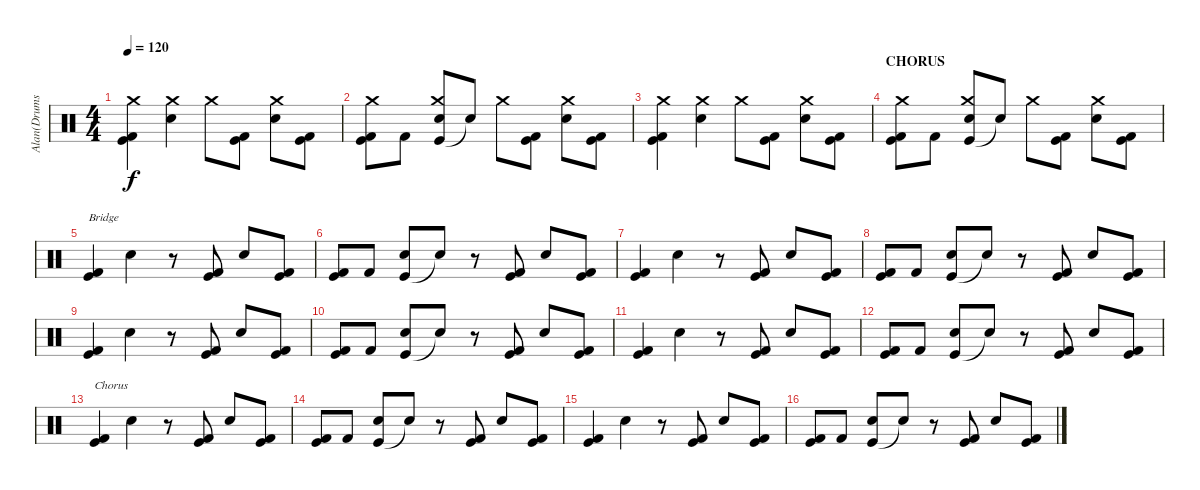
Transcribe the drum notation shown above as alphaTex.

\track ("Alan(Drums)" "Alan(Drums") {instrument percussion}
\staff {score}
\articulation defaults
\ts (4 4)
\tempo 120
\clef neutral
\ks c
("Kick (hit) 2" "Kick (hit)" "Crash medium (hit)").4{dy f} ("Electric Snare (hit)" "Crash medium (hit)").4 "Crash medium (hit)".8 ("Kick (hit)" "Kick (hit) 2").8 ("Electric Snare (hit)" "Crash medium (hit)").8 ("Kick (hit)" "Kick (hit) 2").8 |
("Kick (hit)" "Kick (hit) 2" "Crash medium (hit)").8 "Kick (hit) 2".8 ("Kick (hit)" "Electric Snare (hit)" "Crash medium (hit)").8 "Snare (hit)"{t}.8 "Crash medium (hit)".8 ("Kick (hit)" "Kick (hit) 2").8 ("Electric Snare (hit)" "Crash medium (hit)").8 ("Kick (hit)" "Kick (hit) 2").8 |
("Kick (hit) 2" "Kick (hit)" "Crash medium (hit)").4 ("Electric Snare (hit)" "Crash medium (hit)").4 "Crash medium (hit)".8 ("Kick (hit)" "Kick (hit) 2").8 ("Electric Snare (hit)" "Crash medium (hit)").8 ("Kick (hit)" "Kick (hit) 2").8 |
\section ("" "CHORUS")
("Kick (hit)" "Kick (hit) 2" "Crash medium (hit)").8 "Kick (hit) 2".8 ("Kick (hit)" "Electric Snare (hit)" "Crash medium (hit)").8 "Snare (hit)"{t}.8 "Crash medium (hit)".8 ("Kick (hit)" "Kick (hit) 2").8 ("Electric Snare (hit)" "Crash medium (hit)").8 ("Kick (hit)" "Kick (hit) 2").8 |
("Kick (hit) 2" "Kick (hit)").4{txt "Bridge"} "Electric Snare (hit)".4 r.8 ("Kick (hit)" "Kick (hit) 2").8 "Electric Snare (hit)".8 ("Kick (hit)" "Kick (hit) 2").8 |
("Kick (hit)" "Kick (hit) 2").8 "Kick (hit) 2".8 ("Kick (hit)" "Electric Snare (hit)").8 "Snare (hit)"{t}.8 r.8 ("Kick (hit)" "Kick (hit) 2").8 "Electric Snare (hit)".8 ("Kick (hit)" "Kick (hit) 2").8 |
("Kick (hit) 2" "Kick (hit)").4 "Electric Snare (hit)".4 r.8 ("Kick (hit)" "Kick (hit) 2").8 "Electric Snare (hit)".8 ("Kick (hit)" "Kick (hit) 2").8 |
("Kick (hit)" "Kick (hit) 2").8 "Kick (hit) 2".8 ("Kick (hit)" "Electric Snare (hit)").8 "Snare (hit)"{t}.8 r.8 ("Kick (hit)" "Kick (hit) 2").8 "Electric Snare (hit)".8 ("Kick (hit)" "Kick (hit) 2").8 |
("Kick (hit) 2" "Kick (hit)").4 "Electric Snare (hit)".4 r.8 ("Kick (hit)" "Kick (hit) 2").8 "Electric Snare (hit)".8 ("Kick (hit)" "Kick (hit) 2").8 |
("Kick (hit)" "Kick (hit) 2").8 "Kick (hit) 2".8 ("Kick (hit)" "Electric Snare (hit)").8 "Snare (hit)"{t}.8 r.8 ("Kick (hit)" "Kick (hit) 2").8 "Electric Snare (hit)".8 ("Kick (hit)" "Kick (hit) 2").8 |
("Kick (hit) 2" "Kick (hit)").4 "Electric Snare (hit)".4 r.8 ("Kick (hit)" "Kick (hit) 2").8 "Electric Snare (hit)".8 ("Kick (hit)" "Kick (hit) 2").8 |
("Kick (hit)" "Kick (hit) 2").8 "Kick (hit) 2".8 ("Kick (hit)" "Electric Snare (hit)").8 "Snare (hit)"{t}.8 r.8 ("Kick (hit)" "Kick (hit) 2").8 "Electric Snare (hit)".8 ("Kick (hit)" "Kick (hit) 2").8 |
("Kick (hit) 2" "Kick (hit)").4{txt "Chorus"} "Electric Snare (hit)".4 r.8 ("Kick (hit)" "Kick (hit) 2").8 "Electric Snare (hit)".8 ("Kick (hit)" "Kick (hit) 2").8 |
("Kick (hit)" "Kick (hit) 2").8 "Kick (hit) 2".8 ("Kick (hit)" "Electric Snare (hit)").8 "Snare (hit)"{t}.8 r.8 ("Kick (hit)" "Kick (hit) 2").8 "Electric Snare (hit)".8 ("Kick (hit)" "Kick (hit) 2").8 |
("Kick (hit) 2" "Kick (hit)").4 "Electric Snare (hit)".4 r.8 ("Kick (hit)" "Kick (hit) 2").8 "Electric Snare (hit)".8 ("Kick (hit)" "Kick (hit) 2").8 |
("Kick (hit)" "Kick (hit) 2").8 "Kick (hit) 2".8 ("Kick (hit)" "Electric Snare (hit)").8 "Snare (hit)"{t}.8 r.8 ("Kick (hit)" "Kick (hit) 2").8 "Electric Snare (hit)".8 ("Kick (hit)" "Kick (hit) 2").8
